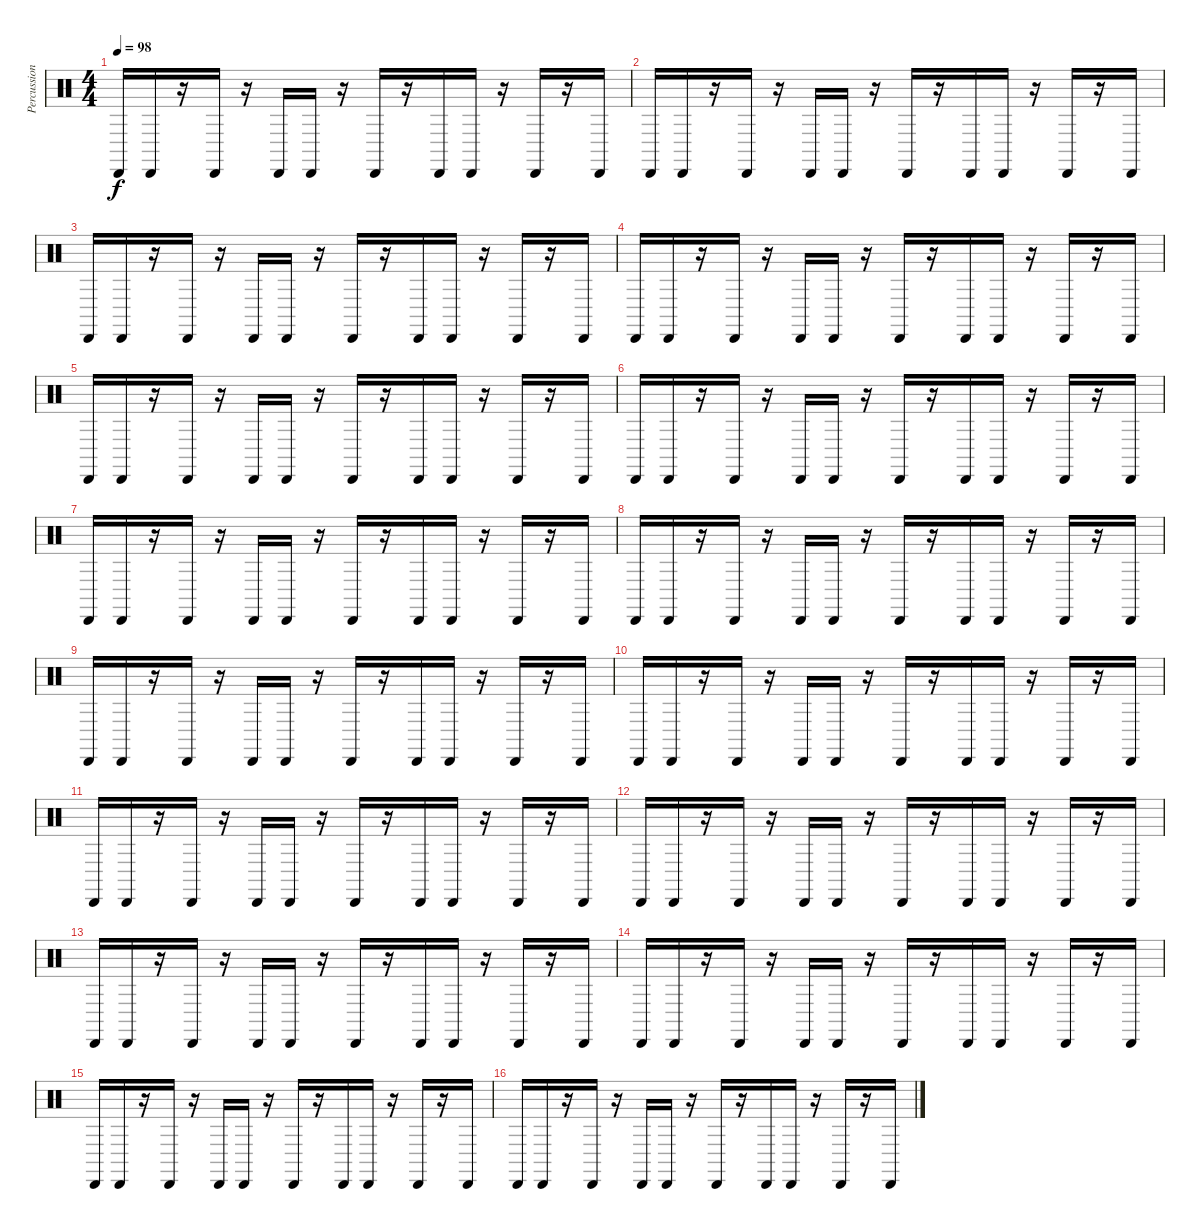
\track ("Percussion" "Percussion") {instrument percussion}
\staff {score}
\articulation defaults
\ts (4 4)
\tempo 98
\clef neutral
\ks c "Cabasa (hit)".16{dy f} "Cabasa (hit)".16
r.16 "Cabasa (hit)".16 r.16 "Cabasa (hit)".16 "Cabasa (hit)".16 r.16 "Cabasa (hit)".16 r.16 "Cabasa (hit)".16 "Cabasa (hit)".16 r.16 "Cabasa (hit)".16 r.16 "Cabasa (hit)".16 |
"Cabasa (hit)".16 "Cabasa (hit)".16 r.16 "Cabasa (hit)".16 r.16 "Cabasa (hit)".16 "Cabasa (hit)".16 r.16 "Cabasa (hit)".16 r.16 "Cabasa (hit)".16 "Cabasa (hit)".16 r.16 "Cabasa (hit)".16 r.16 "Cabasa (hit)".16 |
"Cabasa (hit)".16 "Cabasa (hit)".16 r.16 "Cabasa (hit)".16 r.16 "Cabasa (hit)".16 "Cabasa (hit)".16 r.16 "Cabasa (hit)".16 r.16 "Cabasa (hit)".16 "Cabasa (hit)".16 r.16 "Cabasa (hit)".16 r.16 "Cabasa (hit)".16 |
"Cabasa (hit)".16 "Cabasa (hit)".16 r.16 "Cabasa (hit)".16 r.16 "Cabasa (hit)".16 "Cabasa (hit)".16 r.16 "Cabasa (hit)".16 r.16 "Cabasa (hit)".16 "Cabasa (hit)".16 r.16 "Cabasa (hit)".16 r.16 "Cabasa (hit)".16 |
"Cabasa (hit)".16 "Cabasa (hit)".16 r.16 "Cabasa (hit)".16 r.16 "Cabasa (hit)".16 "Cabasa (hit)".16 r.16 "Cabasa (hit)".16 r.16 "Cabasa (hit)".16 "Cabasa (hit)".16 r.16 "Cabasa (hit)".16 r.16 "Cabasa (hit)".16 |
"Cabasa (hit)".16 "Cabasa (hit)".16 r.16 "Cabasa (hit)".16 r.16 "Cabasa (hit)".16 "Cabasa (hit)".16 r.16 "Cabasa (hit)".16 r.16 "Cabasa (hit)".16 "Cabasa (hit)".16 r.16 "Cabasa (hit)".16 r.16 "Cabasa (hit)".16 |
"Cabasa (hit)".16 "Cabasa (hit)".16 r.16 "Cabasa (hit)".16 r.16 "Cabasa (hit)".16 "Cabasa (hit)".16 r.16 "Cabasa (hit)".16 r.16 "Cabasa (hit)".16 "Cabasa (hit)".16 r.16 "Cabasa (hit)".16 r.16 "Cabasa (hit)".16 |
"Cabasa (hit)".16 "Cabasa (hit)".16 r.16 "Cabasa (hit)".16 r.16 "Cabasa (hit)".16 "Cabasa (hit)".16 r.16 "Cabasa (hit)".16 r.16 "Cabasa (hit)".16 "Cabasa (hit)".16 r.16 "Cabasa (hit)".16 r.16 "Cabasa (hit)".16 |
"Cabasa (hit)".16 "Cabasa (hit)".16 r.16 "Cabasa (hit)".16 r.16 "Cabasa (hit)".16 "Cabasa (hit)".16 r.16 "Cabasa (hit)".16 r.16 "Cabasa (hit)".16 "Cabasa (hit)".16 r.16 "Cabasa (hit)".16 r.16 "Cabasa (hit)".16 |
"Cabasa (hit)".16 "Cabasa (hit)".16 r.16 "Cabasa (hit)".16 r.16 "Cabasa (hit)".16 "Cabasa (hit)".16 r.16 "Cabasa (hit)".16 r.16 "Cabasa (hit)".16 "Cabasa (hit)".16 r.16 "Cabasa (hit)".16 r.16 "Cabasa (hit)".16 |
"Cabasa (hit)".16 "Cabasa (hit)".16 r.16 "Cabasa (hit)".16 r.16 "Cabasa (hit)".16 "Cabasa (hit)".16 r.16 "Cabasa (hit)".16 r.16 "Cabasa (hit)".16 "Cabasa (hit)".16 r.16 "Cabasa (hit)".16 r.16 "Cabasa (hit)".16 |
"Cabasa (hit)".16 "Cabasa (hit)".16 r.16 "Cabasa (hit)".16 r.16 "Cabasa (hit)".16 "Cabasa (hit)".16 r.16 "Cabasa (hit)".16 r.16 "Cabasa (hit)".16 "Cabasa (hit)".16 r.16 "Cabasa (hit)".16 r.16 "Cabasa (hit)".16 |
"Cabasa (hit)".16 "Cabasa (hit)".16 r.16 "Cabasa (hit)".16 r.16 "Cabasa (hit)".16 "Cabasa (hit)".16 r.16 "Cabasa (hit)".16 r.16 "Cabasa (hit)".16 "Cabasa (hit)".16 r.16 "Cabasa (hit)".16 r.16 "Cabasa (hit)".16 |
"Cabasa (hit)".16 "Cabasa (hit)".16 r.16 "Cabasa (hit)".16 r.16 "Cabasa (hit)".16 "Cabasa (hit)".16 r.16 "Cabasa (hit)".16 r.16 "Cabasa (hit)".16 "Cabasa (hit)".16 r.16 "Cabasa (hit)".16 r.16 "Cabasa (hit)".16 |
"Cabasa (hit)".16 "Cabasa (hit)".16 r.16 "Cabasa (hit)".16 r.16 "Cabasa (hit)".16 "Cabasa (hit)".16 r.16 "Cabasa (hit)".16 r.16 "Cabasa (hit)".16 "Cabasa (hit)".16 r.16 "Cabasa (hit)".16 r.16 "Cabasa (hit)".16 |
"Cabasa (hit)".16 "Cabasa (hit)".16 r.16 "Cabasa (hit)".16 r.16 "Cabasa (hit)".16 "Cabasa (hit)".16 r.16 "Cabasa (hit)".16 r.16 "Cabasa (hit)".16 "Cabasa (hit)".16 r.16 "Cabasa (hit)".16 r.16 "Cabasa (hit)".16
